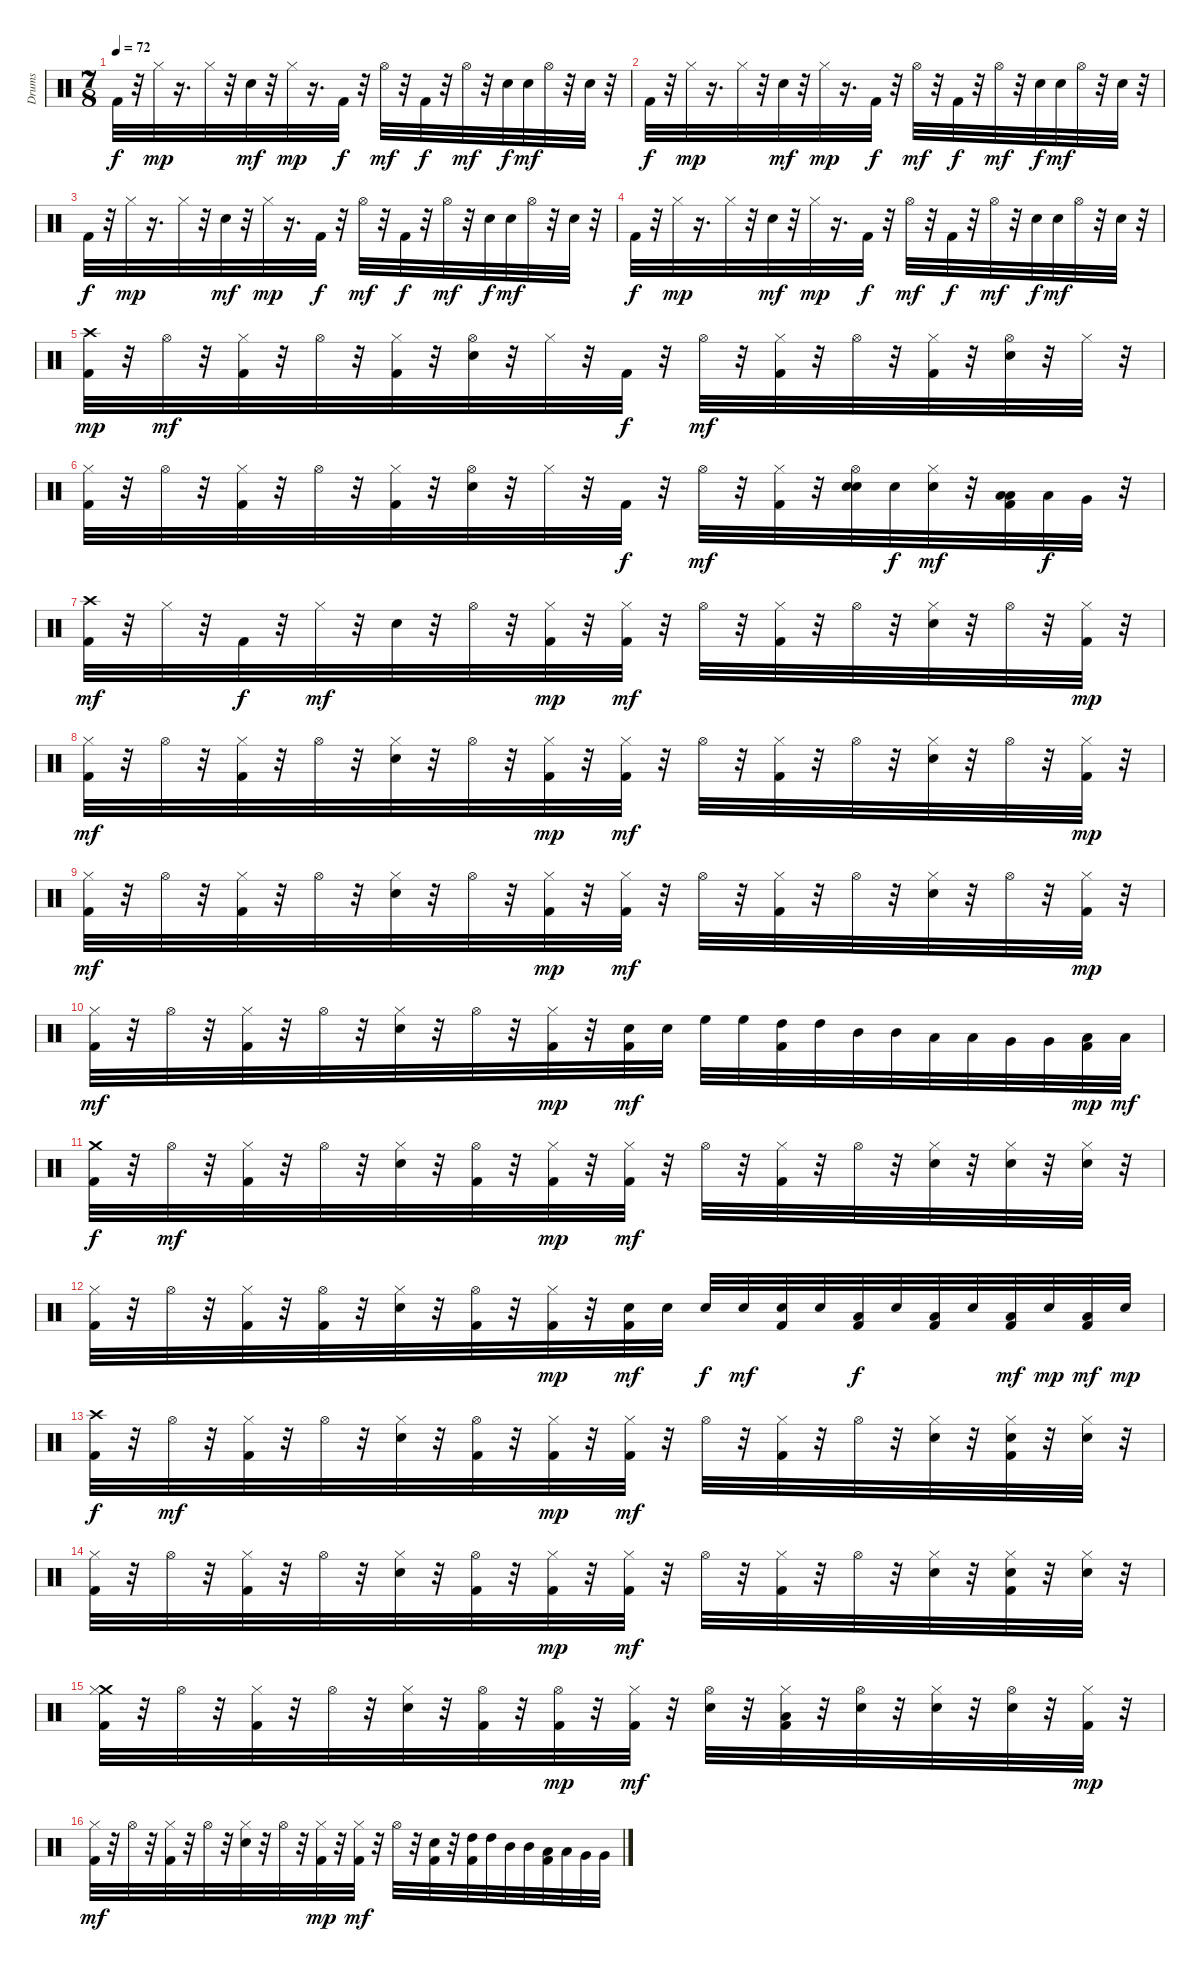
\track ("Drums" "Drums") {instrument percussion}
\staff {score}
\articulation defaults
\ts (7 8)
\tempo 72
\clef neutral
\ks c "Kick (hit) 2".32{dy f}
r.32 "Hi-Hat (closed)".32{dy mp} r.16{d} "Hi-Hat (closed)".32 r.32 "Electric Snare (hit)".32{dy mf} r.32 "Hi-Hat (closed)".32{dy mp} r.16{d} "Kick (hit) 2".32{dy f} r.32 "Hi-Hat (open)".32{dy mf} r.32 "Kick (hit) 2".32{dy f} r.32 "Hi-Hat (open)".32{dy mf} r.32 "Electric Snare (hit)".32{dy f} "Electric Snare (hit)".32{dy mf} "Hi-Hat (open)".32 r.32 "Electric Snare (hit)".32 r.32 |
"Kick (hit) 2".32{dy f} r.32 "Hi-Hat (closed)".32{dy mp} r.16{d} "Hi-Hat (closed)".32 r.32 "Electric Snare (hit)".32{dy mf} r.32 "Hi-Hat (closed)".32{dy mp} r.16{d} "Kick (hit) 2".32{dy f} r.32 "Hi-Hat (open)".32{dy mf} r.32 "Kick (hit) 2".32{dy f} r.32 "Hi-Hat (open)".32{dy mf} r.32 "Electric Snare (hit)".32{dy f} "Electric Snare (hit)".32{dy mf} "Hi-Hat (open)".32 r.32 "Electric Snare (hit)".32 r.32 |
"Kick (hit) 2".32{dy f} r.32 "Hi-Hat (closed)".32{dy mp} r.16{d} "Hi-Hat (closed)".32 r.32 "Electric Snare (hit)".32{dy mf} r.32 "Hi-Hat (closed)".32{dy mp} r.16{d} "Kick (hit) 2".32{dy f} r.32 "Hi-Hat (open)".32{dy mf} r.32 "Kick (hit) 2".32{dy f} r.32 "Hi-Hat (open)".32{dy mf} r.32 "Electric Snare (hit)".32{dy f} "Electric Snare (hit)".32{dy mf} "Hi-Hat (open)".32 r.32 "Electric Snare (hit)".32 r.32 |
"Kick (hit) 2".32{dy f} r.32 "Hi-Hat (closed)".32{dy mp} r.16{d} "Hi-Hat (closed)".32 r.32 "Electric Snare (hit)".32{dy mf} r.32 "Hi-Hat (closed)".32{dy mp} r.16{d} "Kick (hit) 2".32{dy f} r.32 "Hi-Hat (open)".32{dy mf} r.32 "Kick (hit) 2".32{dy f} r.32 "Hi-Hat (open)".32{dy mf} r.32 "Electric Snare (hit)".32{dy f} "Electric Snare (hit)".32{dy mf} "Hi-Hat (open)".32 r.32 "Electric Snare (hit)".32 r.32 |
("Crash high (hit)" "Kick (hit) 2").32{dy mp} r.32 "Hi-Hat (open)".32{dy mf} r.32 ("Hi-Hat (closed)" "Kick (hit) 2").32 r.32 "Hi-Hat (open)".32 r.32 ("Hi-Hat (closed)" "Kick (hit) 2").32 r.32 ("Electric Snare (hit)" "Hi-Hat (open)").32 r.32 "Hi-Hat (closed)".32 r.32 "Kick (hit) 2".32{dy f} r.32 "Hi-Hat (open)".32{dy mf} r.32 ("Hi-Hat (closed)" "Kick (hit) 2").32 r.32 "Hi-Hat (open)".32 r.32 ("Hi-Hat (closed)" "Kick (hit) 2").32 r.32 ("Electric Snare (hit)" "Hi-Hat (open)").32 r.32 "Hi-Hat (closed)".32 r.32 |
("Hi-Hat (closed)" "Kick (hit) 2").32 r.32 "Hi-Hat (open)".32 r.32 ("Hi-Hat (closed)" "Kick (hit) 2").32 r.32 "Hi-Hat (open)".32 r.32 ("Hi-Hat (closed)" "Kick (hit) 2").32 r.32 ("Electric Snare (hit)" "Hi-Hat (open)").32 r.32 "Hi-Hat (closed)".32 r.32 "Kick (hit) 2".32{dy f} r.32 "Hi-Hat (open)".32{dy mf} r.32 ("Hi-Hat (closed)" "Kick (hit) 2").32 r.32 ("Electric Snare (hit)" "Electric Snare (hit)" "Hi-Hat (open)").32 "Electric Snare (hit)".32{dy f} ("Electric Snare (hit)" "Hi-Hat (closed)").32{dy mf} r.32 ("Low Tom (hit)" "Low Tom (hit)" "Kick (hit) 2").32 "Low Tom (hit)".32{dy f} "Very Low Tom (hit)".32 r.32 |
("Crash high (hit)" "Kick (hit) 2").32{dy mf} r.32 "Hi-Hat (closed)".32 r.32 "Kick (hit) 2".32{dy f} r.32 "Hi-Hat (closed)".32{dy mf} r.32 "Electric Snare (hit)".32 r.32 "Hi-Hat (open)".32 r.32 ("Hi-Hat (closed)" "Kick (hit) 2").32{dy mp} r.32 ("Hi-Hat (closed)" "Kick (hit) 2").32{dy mf} r.32 "Hi-Hat (open)".32 r.32 ("Hi-Hat (closed)" "Kick (hit) 2").32 r.32 "Hi-Hat (open)".32 r.32 ("Electric Snare (hit)" "Hi-Hat (closed)").32 r.32 "Hi-Hat (open)".32 r.32 ("Hi-Hat (closed)" "Kick (hit) 2").32{dy mp} r.32 |
("Hi-Hat (closed)" "Kick (hit) 2").32{dy mf} r.32 "Hi-Hat (open)".32 r.32 ("Hi-Hat (closed)" "Kick (hit) 2").32 r.32 "Hi-Hat (open)".32 r.32 ("Electric Snare (hit)" "Hi-Hat (closed)").32 r.32 "Hi-Hat (open)".32 r.32 ("Hi-Hat (closed)" "Kick (hit) 2").32{dy mp} r.32 ("Hi-Hat (closed)" "Kick (hit) 2").32{dy mf} r.32 "Hi-Hat (open)".32 r.32 ("Hi-Hat (closed)" "Kick (hit) 2").32 r.32 "Hi-Hat (open)".32 r.32 ("Electric Snare (hit)" "Hi-Hat (closed)").32 r.32 "Hi-Hat (open)".32 r.32 ("Hi-Hat (closed)" "Kick (hit) 2").32{dy mp} r.32 |
("Hi-Hat (closed)" "Kick (hit) 2").32{dy mf} r.32 "Hi-Hat (open)".32 r.32 ("Hi-Hat (closed)" "Kick (hit) 2").32 r.32 "Hi-Hat (open)".32 r.32 ("Electric Snare (hit)" "Hi-Hat (closed)").32 r.32 "Hi-Hat (open)".32 r.32 ("Hi-Hat (closed)" "Kick (hit) 2").32{dy mp} r.32 ("Hi-Hat (closed)" "Kick (hit) 2").32{dy mf} r.32 "Hi-Hat (open)".32 r.32 ("Hi-Hat (closed)" "Kick (hit) 2").32 r.32 "Hi-Hat (open)".32 r.32 ("Electric Snare (hit)" "Hi-Hat (closed)").32 r.32 "Hi-Hat (open)".32 r.32 ("Hi-Hat (closed)" "Kick (hit) 2").32{dy mp} r.32 |
("Hi-Hat (closed)" "Kick (hit) 2").32{dy mf} r.32 "Hi-Hat (open)".32 r.32 ("Hi-Hat (closed)" "Kick (hit) 2").32 r.32 "Hi-Hat (open)".32 r.32 ("Electric Snare (hit)" "Hi-Hat (closed)").32 r.32 "Hi-Hat (open)".32 r.32 ("Hi-Hat (closed)" "Kick (hit) 2").32{dy mp} r.32 ("Electric Snare (hit)" "Kick (hit) 2").32{dy mf} "Electric Snare (hit)".32 "High Floor Tom (hit)".32 "High Floor Tom (hit)".32 ("High Tom (hit)" "Kick (hit) 2").32 "High Tom (hit)".32 "Mid Tom (hit)".32 "Mid Tom (hit)".32 "Low Tom (hit)".32 "Low Tom (hit)".32 "Very Low Tom (hit)".32 "Very Low Tom (hit)".32 ("Low Floor Tom (hit)" "Kick (hit) 2").32{dy mp} "Low Floor Tom (hit)".32{dy mf} |
("Crash medium (hit)" "Kick (hit) 2").32{dy f} r.32 "Hi-Hat (open)".32{dy mf} r.32 ("Hi-Hat (closed)" "Kick (hit) 2").32 r.32 "Hi-Hat (open)".32 r.32 ("Electric Snare (hit)" "Hi-Hat (closed)").32 r.32 ("Hi-Hat (open)" "Kick (hit) 2").32 r.32 ("Hi-Hat (closed)" "Kick (hit) 2").32{dy mp} r.32 ("Hi-Hat (closed)" "Kick (hit) 2").32{dy mf} r.32 "Hi-Hat (open)".32 r.32 ("Hi-Hat (closed)" "Kick (hit) 2").32 r.32 "Hi-Hat (open)".32 r.32 ("Electric Snare (hit)" "Hi-Hat (closed)").32 r.32 ("Electric Snare (hit)" "Hi-Hat (closed)").32 r.32 ("Electric Snare (hit)" "Hi-Hat (closed)").32 r.32 |
("Hi-Hat (closed)" "Kick (hit) 2").32 r.32 "Hi-Hat (open)".32 r.32 ("Hi-Hat (closed)" "Kick (hit) 2").32 r.32 ("Hi-Hat (open)" "Kick (hit) 2").32 r.32 ("Electric Snare (hit)" "Hi-Hat (closed)").32 r.32 ("Hi-Hat (open)" "Kick (hit) 2").32 r.32 ("Hi-Hat (closed)" "Kick (hit) 2").32{dy mp} r.32 ("Electric Snare (hit)" "Kick (hit) 2").32{dy mf} "Electric Snare (hit)".32 "Electric Snare (hit)".32{dy f} "Electric Snare (hit)".32{dy mf} ("Electric Snare (hit)" "Kick (hit) 2").32 "Electric Snare (hit)".32 ("Low Floor Tom (hit)" "Kick (hit) 2").32{dy f} "Electric Snare (hit)".32 ("Low Floor Tom (hit)" "Kick (hit) 2").32 "Electric Snare (hit)".32 ("Low Floor Tom (hit)" "Kick (hit) 2").32{dy mf} "Electric Snare (hit)".32{dy mp} ("Low Floor Tom (hit)" "Kick (hit) 2").32{dy mf} "Electric Snare (hit)".32{dy mp} |
("Crash high (hit)" "Kick (hit) 2").32{dy f} r.32 "Hi-Hat (open)".32{dy mf} r.32 ("Hi-Hat (closed)" "Kick (hit) 2").32 r.32 "Hi-Hat (open)".32 r.32 ("Electric Snare (hit)" "Hi-Hat (closed)").32 r.32 ("Hi-Hat (open)" "Kick (hit) 2").32 r.32 ("Hi-Hat (closed)" "Kick (hit) 2").32{dy mp} r.32 ("Hi-Hat (closed)" "Kick (hit) 2").32{dy mf} r.32 "Hi-Hat (open)".32 r.32 ("Hi-Hat (closed)" "Kick (hit) 2").32 r.32 "Hi-Hat (open)".32 r.32 ("Electric Snare (hit)" "Hi-Hat (closed)").32 r.32 ("Electric Snare (hit)" "Hi-Hat (closed)" "Kick (hit) 2").32 r.32 ("Electric Snare (hit)" "Hi-Hat (closed)").32 r.32 |
("Hi-Hat (closed)" "Kick (hit) 2").32 r.32 "Hi-Hat (open)".32 r.32 ("Hi-Hat (closed)" "Kick (hit) 2").32 r.32 "Hi-Hat (open)".32 r.32 ("Electric Snare (hit)" "Hi-Hat (closed)").32 r.32 ("Hi-Hat (open)" "Kick (hit) 2").32 r.32 ("Hi-Hat (closed)" "Kick (hit) 2").32{dy mp} r.32 ("Hi-Hat (closed)" "Kick (hit) 2").32{dy mf} r.32 "Hi-Hat (open)".32 r.32 ("Hi-Hat (closed)" "Kick (hit) 2").32 r.32 "Hi-Hat (open)".32 r.32 ("Electric Snare (hit)" "Hi-Hat (closed)").32 r.32 ("Electric Snare (hit)" "Hi-Hat (closed)" "Kick (hit) 2").32 r.32 ("Electric Snare (hit)" "Hi-Hat (closed)").32 r.32 |
("Crash medium (hit)" "Hi-Hat (closed)" "Kick (hit) 2").32 r.32 "Hi-Hat (open)".32 r.32 ("Hi-Hat (closed)" "Kick (hit) 2").32 r.32 "Hi-Hat (open)".32 r.32 ("Electric Snare (hit)" "Hi-Hat (closed)").32 r.32 ("Hi-Hat (open)" "Kick (hit) 2").32 r.32 ("Hi-Hat (open)" "Kick (hit) 2").32{dy mp} r.32 ("Hi-Hat (closed)" "Kick (hit) 2").32{dy mf} r.32 ("Electric Snare (hit)" "Hi-Hat (open)").32 r.32 ("Low Floor Tom (hit)" "Hi-Hat (closed)" "Kick (hit) 2").32 r.32 ("Electric Snare (hit)" "Hi-Hat (open)").32 r.32 ("Electric Snare (hit)" "Hi-Hat (closed)").32 r.32 ("Electric Snare (hit)" "Hi-Hat (open)").32 r.32 ("Hi-Hat (closed)" "Kick (hit) 2").32{dy mp} r.32 |
("Hi-Hat (closed)" "Kick (hit) 2").32{dy mf} r.32 "Hi-Hat (open)".32 r.32 ("Hi-Hat (closed)" "Kick (hit) 2").32 r.32 "Hi-Hat (open)".32 r.32 ("Electric Snare (hit)" "Hi-Hat (closed)").32 r.32 "Hi-Hat (open)".32 r.32 ("Hi-Hat (closed)" "Kick (hit) 2").32{dy mp} r.32 ("Hi-Hat (closed)" "Kick (hit) 2").32{dy mf} r.32 "Hi-Hat (open)".32 r.32 ("Electric Snare (hit)" "Kick (hit) 2").32 r.32 ("High Tom (hit)" "Kick (hit) 2").32 "High Tom (hit)".32 "Mid Tom (hit)".32 "Mid Tom (hit)".32 ("Low Tom (hit)" "Kick (hit) 2").32 "Low Tom (hit)".32 "Very Low Tom (hit)".32 "Very Low Tom (hit)".32
